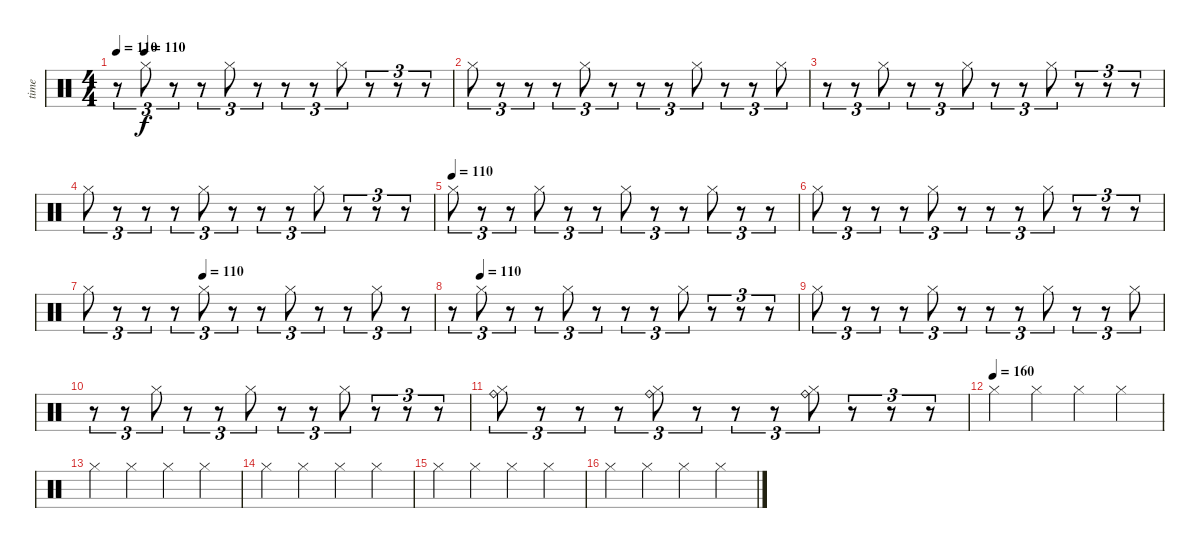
\track ("time" "time") {instrument percussion}
\staff {score}
\articulation defaults
\ts (4 4)
\tempo 110
\tempo (110 0.08333333333333333)
\clef neutral
\ks c
r.8{tu (3 2) dy f} "Hi-Hat (closed)".8{tu (3 2)} r.8{tu (3 2)} r.8{tu (3 2)} "Hi-Hat (closed)".8{tu (3 2)} r.8{tu (3 2)} r.8{tu (3 2)} r.8{tu (3 2)} "Hi-Hat (closed)".8{tu (3 2)} r.8{tu (3 2)} r.8{tu (3 2)} r.8{tu (3 2)} |
"Hi-Hat (closed)".8{tu (3 2)} r.8{tu (3 2)} r.8{tu (3 2)} r.8{tu (3 2)} "Hi-Hat (closed)".8{tu (3 2)} r.8{tu (3 2)} r.8{tu (3 2)} r.8{tu (3 2)} "Hi-Hat (closed)".8{tu (3 2)} r.8{tu (3 2)} r.8{tu (3 2)} "Hi-Hat (closed)".8{tu (3 2)} |
r.8{tu (3 2)} r.8{tu (3 2)} "Hi-Hat (closed)".8{tu (3 2)} r.8{tu (3 2)} r.8{tu (3 2)} "Hi-Hat (closed)".8{tu (3 2)} r.8{tu (3 2)} r.8{tu (3 2)} "Hi-Hat (closed)".8{tu (3 2)} r.8{tu (3 2)} r.8{tu (3 2)} r.8{tu (3 2)} |
"Hi-Hat (closed)".8{tu (3 2)} r.8{tu (3 2)} r.8{tu (3 2)} r.8{tu (3 2)} "Hi-Hat (closed)".8{tu (3 2)} r.8{tu (3 2)} r.8{tu (3 2)} r.8{tu (3 2)} "Hi-Hat (closed)".8{tu (3 2)} r.8{tu (3 2)} r.8{tu (3 2)} r.8{tu (3 2)} |
\tempo (110)
"Hi-Hat (closed)".8{tu (3 2)} r.8{tu (3 2)} r.8{tu (3 2)} "Hi-Hat (closed)".8{tu (3 2)} r.8{tu (3 2)} r.8{tu (3 2)} "Hi-Hat (closed)".8{tu (3 2)} r.8{tu (3 2)} r.8{tu (3 2)} "Hi-Hat (closed)".8{tu (3 2)} r.8{tu (3 2)} r.8{tu (3 2)} |
"Hi-Hat (closed)".8{tu (3 2)} r.8{tu (3 2)} r.8{tu (3 2)} r.8{tu (3 2)} "Hi-Hat (closed)".8{tu (3 2)} r.8{tu (3 2)} r.8{tu (3 2)} r.8{tu (3 2)} "Hi-Hat (closed)".8{tu (3 2)} r.8{tu (3 2)} r.8{tu (3 2)} r.8{tu (3 2)} |
\tempo (110 0.3333333333333333)
"Hi-Hat (closed)".8{tu (3 2)} r.8{tu (3 2)} r.8{tu (3 2)} r.8{tu (3 2)} "Hi-Hat (closed)".8{tu (3 2)} r.8{tu (3 2)} r.8{tu (3 2)} "Hi-Hat (closed)".8{tu (3 2)} r.8{tu (3 2)} r.8{tu (3 2)} "Hi-Hat (closed)".8{tu (3 2)} r.8{tu (3 2)} |
\tempo (110 0.08333333333333333)
r.8{tu (3 2)} "Hi-Hat (closed)".8{tu (3 2)} r.8{tu (3 2)} r.8{tu (3 2)} "Hi-Hat (closed)".8{tu (3 2)} r.8{tu (3 2)} r.8{tu (3 2)} r.8{tu (3 2)} "Hi-Hat (closed)".8{tu (3 2)} r.8{tu (3 2)} r.8{tu (3 2)} r.8{tu (3 2)} |
"Hi-Hat (closed)".8{tu (3 2)} r.8{tu (3 2)} r.8{tu (3 2)} r.8{tu (3 2)} "Hi-Hat (closed)".8{tu (3 2)} r.8{tu (3 2)} r.8{tu (3 2)} r.8{tu (3 2)} "Hi-Hat (closed)".8{tu (3 2)} r.8{tu (3 2)} r.8{tu (3 2)} "Hi-Hat (closed)".8{tu (3 2)} |
r.8{tu (3 2)} r.8{tu (3 2)} "Hi-Hat (closed)".8{tu (3 2)} r.8{tu (3 2)} r.8{tu (3 2)} "Hi-Hat (closed)".8{tu (3 2)} r.8{tu (3 2)} r.8{tu (3 2)} "Hi-Hat (closed)".8{tu (3 2)} r.8{tu (3 2)} r.8{tu (3 2)} r.8{tu (3 2)} |
("Ride (bell)" "Hi-Hat (closed)").8{tu (3 2)} r.8{tu (3 2)} r.8{tu (3 2)} r.8{tu (3 2)} ("Ride (bell)" "Hi-Hat (closed)").8{tu (3 2)} r.8{tu (3 2)} r.8{tu (3 2)} r.8{tu (3 2)} ("Ride (bell)" "Hi-Hat (closed)").8{tu (3 2)} r.8{tu (3 2)} r.8{tu (3 2)} r.8{tu (3 2)} |
\tempo (160)
"Hi-Hat (closed)".4 "Hi-Hat (closed)".4 "Hi-Hat (closed)".4 "Hi-Hat (closed)".4 |
"Hi-Hat (closed)".4 "Hi-Hat (closed)".4 "Hi-Hat (closed)".4 "Hi-Hat (closed)".4 |
"Hi-Hat (closed)".4 "Hi-Hat (closed)".4 "Hi-Hat (closed)".4 "Hi-Hat (closed)".4 |
"Hi-Hat (closed)".4 "Hi-Hat (closed)".4 "Hi-Hat (closed)".4 "Hi-Hat (closed)".4 |
"Hi-Hat (closed)".4 "Hi-Hat (closed)".4 "Hi-Hat (closed)".4 "Hi-Hat (closed)".4
